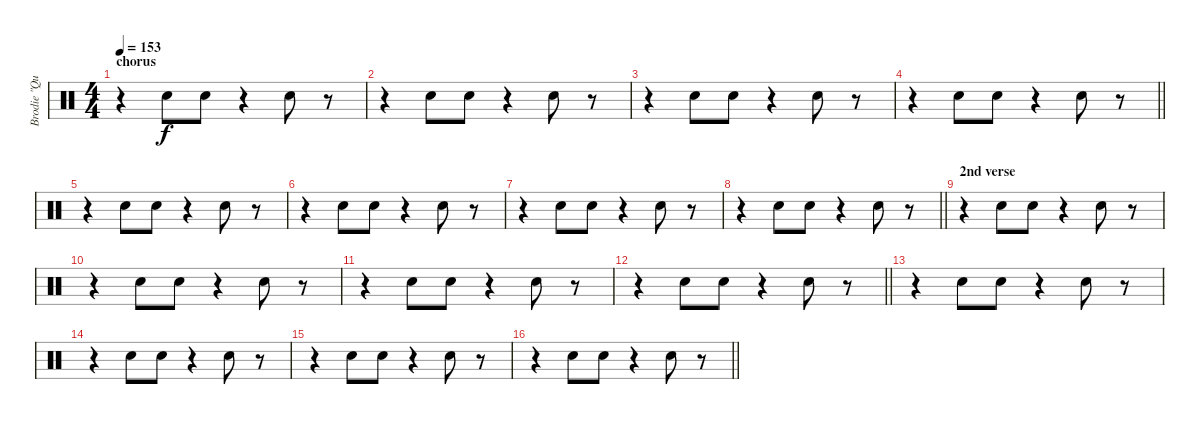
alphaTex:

\track ("Brodie \"Queen Be\" Dalle" "Brodie \"Qu") {instrument percussion}
\staff {score}
\articulation defaults
\ts (4 4)
\section ("" "chorus")
\tempo 153
\clef neutral
\ks c
r.4{dy f} "Hand Clap (hit)".8 "Hand Clap (hit)".8 r.4 "Hand Clap (hit)".8 r.8 |
r.4 "Hand Clap (hit)".8 "Hand Clap (hit)".8 r.4 "Hand Clap (hit)".8 r.8 |
r.4 "Hand Clap (hit)".8 "Hand Clap (hit)".8 r.4 "Hand Clap (hit)".8 r.8 |
\barLineRight lightlight
r.4 "Hand Clap (hit)".8 "Hand Clap (hit)".8 r.4 "Hand Clap (hit)".8 r.8 |
\section ("" "")
r.4 "Hand Clap (hit)".8 "Hand Clap (hit)".8 r.4 "Hand Clap (hit)".8 r.8 |
r.4 "Hand Clap (hit)".8 "Hand Clap (hit)".8 r.4 "Hand Clap (hit)".8 r.8 |
r.4 "Hand Clap (hit)".8 "Hand Clap (hit)".8 r.4 "Hand Clap (hit)".8 r.8 |
\barLineRight lightlight
r.4 "Hand Clap (hit)".8 "Hand Clap (hit)".8 r.4 "Hand Clap (hit)".8 r.8 |
\section ("" "2nd verse")
r.4 "Hand Clap (hit)".8 "Hand Clap (hit)".8 r.4 "Hand Clap (hit)".8 r.8 |
r.4 "Hand Clap (hit)".8 "Hand Clap (hit)".8 r.4 "Hand Clap (hit)".8 r.8 |
r.4 "Hand Clap (hit)".8 "Hand Clap (hit)".8 r.4 "Hand Clap (hit)".8 r.8 |
\barLineRight lightlight
r.4 "Hand Clap (hit)".8 "Hand Clap (hit)".8 r.4 "Hand Clap (hit)".8 r.8 |
\section ("" "")
r.4 "Hand Clap (hit)".8 "Hand Clap (hit)".8 r.4 "Hand Clap (hit)".8 r.8 |
r.4 "Hand Clap (hit)".8 "Hand Clap (hit)".8 r.4 "Hand Clap (hit)".8 r.8 |
r.4 "Hand Clap (hit)".8 "Hand Clap (hit)".8 r.4 "Hand Clap (hit)".8 r.8 |
\barLineRight lightlight
r.4 "Hand Clap (hit)".8 "Hand Clap (hit)".8 r.4 "Hand Clap (hit)".8 r.8
